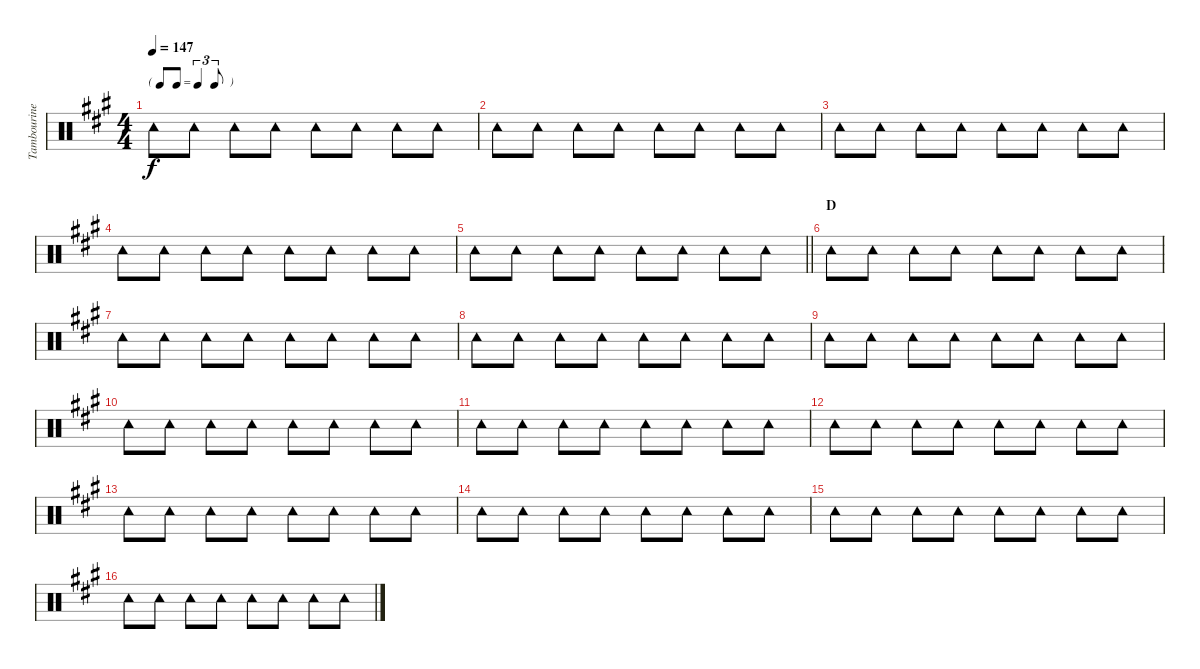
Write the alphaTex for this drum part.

\track ("Tambourine" "Tambourine") {instrument percussion}
\staff {score}
\articulation defaults
\ts (4 4)
\tf triplet8th
\tempo 147
\clef neutral
\ks a "Tambourine (hit)".8{dy f} "Tambourine (hit)".8 "Tambourine (hit)".8 "Tambourine (hit)".8 "Tambourine (hit)".8 "Tambourine (hit)".8 "Tambourine (hit)".8 "Tambourine (hit)".8
|
"Tambourine (hit)".8 "Tambourine (hit)".8 "Tambourine (hit)".8 "Tambourine (hit)".8 "Tambourine (hit)".8 "Tambourine (hit)".8 "Tambourine (hit)".8 "Tambourine (hit)".8 |
"Tambourine (hit)".8 "Tambourine (hit)".8 "Tambourine (hit)".8 "Tambourine (hit)".8 "Tambourine (hit)".8 "Tambourine (hit)".8 "Tambourine (hit)".8 "Tambourine (hit)".8 |
"Tambourine (hit)".8 "Tambourine (hit)".8 "Tambourine (hit)".8 "Tambourine (hit)".8 "Tambourine (hit)".8 "Tambourine (hit)".8 "Tambourine (hit)".8 "Tambourine (hit)".8 |
\barLineRight lightlight "Tambourine (hit)".8 "Tambourine (hit)".8 "Tambourine (hit)".8 "Tambourine (hit)".8 "Tambourine (hit)".8 "Tambourine (hit)".8 "Tambourine (hit)".8 "Tambourine (hit)".8
|
\section ("" "D")
"Tambourine (hit)".8 "Tambourine (hit)".8 "Tambourine (hit)".8 "Tambourine (hit)".8 "Tambourine (hit)".8 "Tambourine (hit)".8 "Tambourine (hit)".8 "Tambourine (hit)".8 |
"Tambourine (hit)".8 "Tambourine (hit)".8 "Tambourine (hit)".8 "Tambourine (hit)".8 "Tambourine (hit)".8 "Tambourine (hit)".8 "Tambourine (hit)".8 "Tambourine (hit)".8 |
"Tambourine (hit)".8 "Tambourine (hit)".8 "Tambourine (hit)".8 "Tambourine (hit)".8 "Tambourine (hit)".8 "Tambourine (hit)".8 "Tambourine (hit)".8 "Tambourine (hit)".8 |
"Tambourine (hit)".8 "Tambourine (hit)".8 "Tambourine (hit)".8 "Tambourine (hit)".8 "Tambourine (hit)".8 "Tambourine (hit)".8 "Tambourine (hit)".8 "Tambourine (hit)".8 |
"Tambourine (hit)".8 "Tambourine (hit)".8 "Tambourine (hit)".8 "Tambourine (hit)".8 "Tambourine (hit)".8 "Tambourine (hit)".8 "Tambourine (hit)".8 "Tambourine (hit)".8 |
"Tambourine (hit)".8 "Tambourine (hit)".8 "Tambourine (hit)".8 "Tambourine (hit)".8 "Tambourine (hit)".8 "Tambourine (hit)".8 "Tambourine (hit)".8 "Tambourine (hit)".8 |
"Tambourine (hit)".8 "Tambourine (hit)".8 "Tambourine (hit)".8 "Tambourine (hit)".8 "Tambourine (hit)".8 "Tambourine (hit)".8 "Tambourine (hit)".8 "Tambourine (hit)".8 |
"Tambourine (hit)".8 "Tambourine (hit)".8 "Tambourine (hit)".8 "Tambourine (hit)".8 "Tambourine (hit)".8 "Tambourine (hit)".8 "Tambourine (hit)".8 "Tambourine (hit)".8 |
"Tambourine (hit)".8 "Tambourine (hit)".8 "Tambourine (hit)".8 "Tambourine (hit)".8 "Tambourine (hit)".8 "Tambourine (hit)".8 "Tambourine (hit)".8 "Tambourine (hit)".8 |
"Tambourine (hit)".8 "Tambourine (hit)".8 "Tambourine (hit)".8 "Tambourine (hit)".8 "Tambourine (hit)".8 "Tambourine (hit)".8 "Tambourine (hit)".8 "Tambourine (hit)".8 |
"Tambourine (hit)".8 "Tambourine (hit)".8 "Tambourine (hit)".8 "Tambourine (hit)".8 "Tambourine (hit)".8 "Tambourine (hit)".8 "Tambourine (hit)".8 "Tambourine (hit)".8
